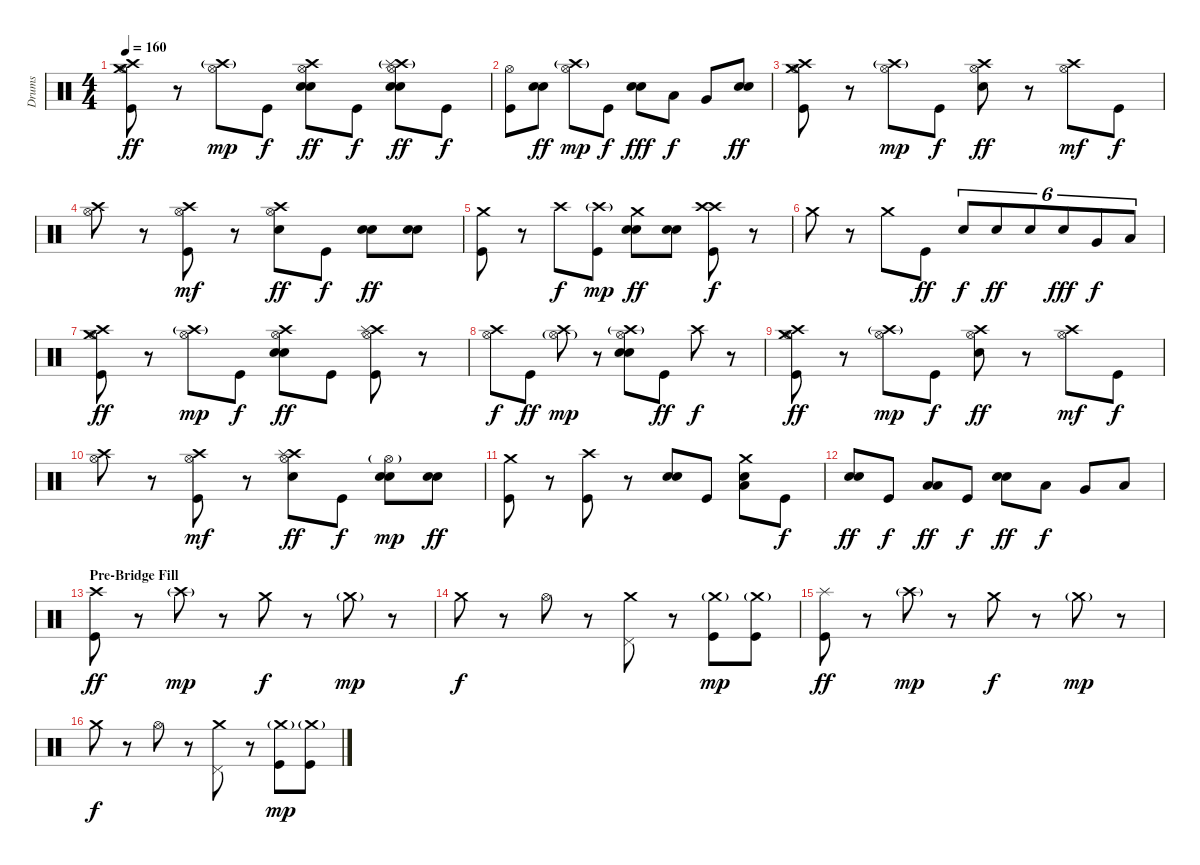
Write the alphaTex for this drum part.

\track ("Drums" "Drums") {instrument percussion}
\staff {score}
\articulation defaults
\ts (4 4)
\tempo 160
\clef neutral
\ks c
("Kick (hit)" "Hi-Hat (open)" "Crash high (hit)" "Crash medium (hit)").8{dy ff} r.8 ("Hi-Hat (open)" "Crash high (hit)"{g}).8{dy mp} "Kick (hit)".8{dy f} ("Electric Snare (hit)" "Electric Snare (hit)" "Hi-Hat (open)" "Crash high (hit)").8{dy ff} "Kick (hit)".8{dy f} ("Electric Snare (hit)" "Electric Snare (hit)" "Hi-Hat (open)" "Crash high (hit)"{g} "Splash (hit)").8{dy ff} "Kick (hit)".8{dy f} |
("Kick (hit)" "Hi-Hat (open)").8 ("Electric Snare (hit)" "Electric Snare (hit)").8{dy ff} ("Hi-Hat (open)" "Crash high (hit)"{g}).8{dy mp} "Kick (hit)".8{dy f} ("Electric Snare (hit)" "Electric Snare (hit)").8{dy fff} "Low Tom (hit)".8{dy f} "Very Low Tom (hit)".8 ("Electric Snare (hit)" "Electric Snare (hit)").8{dy ff} |
("Kick (hit)" "Hi-Hat (open)" "Crash high (hit)" "Crash medium (hit)").8 r.8 ("Hi-Hat (open)" "Crash high (hit)"{g}).8{dy mp} "Kick (hit)".8{dy f} ("Electric Snare (hit)" "Hi-Hat (open)" "Crash high (hit)").8{dy ff} r.8 ("Hi-Hat (open)" "Crash high (hit)").8{dy mf} "Kick (hit)".8{dy f} |
("Hi-Hat (open)" "Crash high (hit)").8 r.8 ("Kick (hit)" "Hi-Hat (open)" "Crash high (hit)").8{dy mf} r.8 ("Electric Snare (hit)" "Hi-Hat (open)" "Crash high (hit)").8{dy ff} "Kick (hit)".8{dy f} ("Electric Snare (hit)" "Electric Snare (hit)").8{dy ff} ("Electric Snare (hit)" "Electric Snare (hit)").8 |
("Kick (hit)" "Crash medium (hit)").8 r.8 "Crash high (hit)".8{dy f} ("Kick (hit)" "Crash high (hit)"{g}).8{dy mp} ("Electric Snare (hit)" "Electric Snare (hit)" "Crash medium (hit)").8{dy ff} ("Electric Snare (hit)" "Electric Snare (hit)").8 ("Kick (hit)" "Crash high (hit)" "Crash high (hit)").8{dy f} r.8 |
"Crash medium (hit)".8 r.8 "Crash medium (hit)".8 "Kick (hit)".8{dy ff} "Electric Snare (hit)".8{tu (6 4) dy f} "Electric Snare (hit)".8{tu (6 4) dy ff} "Electric Snare (hit)".8{tu (6 4)} "Electric Snare (hit)".8{tu (6 4) dy fff} "Very Low Tom (hit)".8{tu (6 4) dy f} "Low Floor Tom (hit)".8{tu (6 4)} |
("Kick (hit)" "Hi-Hat (open)" "Crash high (hit)" "Crash medium (hit)").8{dy ff} r.8 ("Hi-Hat (open)" "Crash high (hit)"{g}).8{dy mp} "Kick (hit)".8{dy f} ("Electric Snare (hit)" "Electric Snare (hit)" "Hi-Hat (open)" "Crash high (hit)").8{dy ff} "Kick (hit)".8 ("Kick (hit)" "Hi-Hat (open)" "Crash high (hit)" "Splash (hit)").8 r.8 |
("Hi-Hat (open)" "Crash high (hit)").8{dy f} "Kick (hit)".8{dy ff} ("Hi-Hat (open)"{g} "Crash high (hit)").8{dy mp} r.8 ("Electric Snare (hit)" "Electric Snare (hit)" "Hi-Hat (open)" "Crash high (hit)"{g}).8 "Kick (hit)".8{dy ff} "Crash high (hit)".8{dy f} r.8 |
("Kick (hit)" "Hi-Hat (open)" "Crash high (hit)" "Crash medium (hit)").8{dy ff} r.8 ("Hi-Hat (open)" "Crash high (hit)"{g}).8{dy mp} "Kick (hit)".8{dy f} ("Electric Snare (hit)" "Hi-Hat (open)" "Crash high (hit)").8{dy ff} r.8 ("Hi-Hat (open)" "Crash high (hit)").8{dy mf} "Kick (hit)".8{dy f} |
("Hi-Hat (open)" "Crash high (hit)").8 r.8 ("Kick (hit)" "Hi-Hat (open)" "Crash high (hit)").8{dy mf} r.8 ("Electric Snare (hit)" "Hi-Hat (open)" "Crash high (hit)" "Splash (hit)").8{dy ff} "Kick (hit)".8{dy f} ("Electric Snare (hit)" "Electric Snare (hit)" "Hi-Hat (open)"{g}).8{dy mp} ("Electric Snare (hit)" "Electric Snare (hit)").8{dy ff} |
("Kick (hit)" "Crash medium (hit)").8 r.8 ("Kick (hit)" "Crash high (hit)").8 r.8 ("Electric Snare (hit)" "Electric Snare (hit)").8 "Kick (hit)".8 ("Low Floor Tom (hit)" "Electric Snare (hit)" "Crash medium (hit)").8 "Kick (hit)".8{dy f} |
("Electric Snare (hit)" "Electric Snare (hit)").8{dy ff} "Kick (hit)".8{dy f} ("Low Floor Tom (hit)" "Low Floor Tom (hit)").8{dy ff} "Kick (hit)".8{dy f} ("Electric Snare (hit)" "Electric Snare (hit)").8{dy ff} "Low Tom (hit)".8{dy f} "Very Low Tom (hit)".8 "Low Floor Tom (hit)".8 |
\section ("" "Pre-Bridge Fill")
("Kick (hit)" "Crash high (hit)").8{dy ff} r.8 "Crash high (hit)"{g}.8{dy mp} r.8 "Crash medium (hit)".8{dy f} r.8 "Crash medium (hit)"{g}.8{dy mp} r.8 |
"Crash medium (hit)".8{dy f} r.8 "Hi-Hat (open)".8 r.8 ("Pedal Hi-Hat (hit)" "Crash medium (hit)").8 r.8 ("Kick (hit)" "Crash medium (hit)"{g}).8{dy mp} ("Kick (hit)" "Crash medium (hit)"{g}).8 |
("Kick (hit)" "Splash (hit)").8{dy ff} r.8 "Crash high (hit)"{g}.8{dy mp} r.8 "Crash medium (hit)".8{dy f} r.8 "Crash medium (hit)"{g}.8{dy mp} r.8 |
"Crash medium (hit)".8{dy f} r.8 "Hi-Hat (open)".8 r.8 ("Pedal Hi-Hat (hit)" "Crash medium (hit)").8 r.8 ("Kick (hit)" "Crash medium (hit)"{g}).8{dy mp} ("Kick (hit)" "Crash medium (hit)"{g}).8
